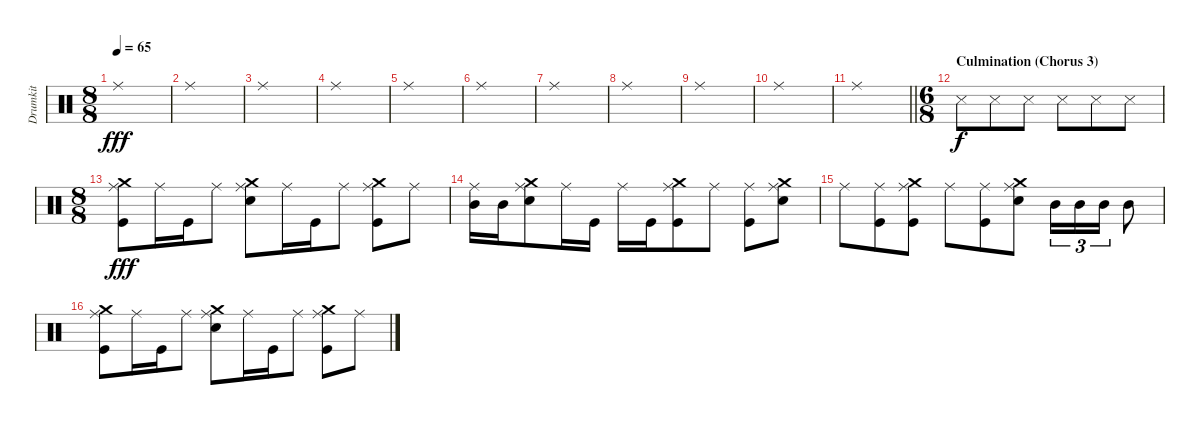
\track ("Drumkit" "Drumkit") {instrument percussion}
\staff {score}
\articulation defaults
\ts (8 8)
\tempo 65
\clef neutral
\ks c "Ride (middle)".1{dy fff}
|
"Ride (middle)".1 |
"Ride (middle)".1 |
"Ride (middle)".1 |
"Ride (middle)".1 |
"Ride (middle)".1 |
"Ride (middle)".1 |
"Ride (middle)".1 |
"Ride (middle)".1 |
"Ride (middle)".1 |
\barLineRight lightlight "Ride (middle)".1
|
\ts (6 8)
\section ("" "Culmination (Chorus 3)")
"Snare (side stick) 3".8{dy f} "Snare (side stick) 3".8 "Snare (side stick) 3".8 "Snare (side stick) 3".8 "Snare (side stick) 3".8 "Snare (side stick) 3".8 |
\ts (8 8)
("Ride (middle)" "Crash medium (hit)" "Kick (hit)").8{dy fff} "Ride (middle)".16 "Kick (hit)".16 "Ride (middle)".8 ("Ride (middle)" "Crash medium (hit)" "Snare (hit) 2").8 "Ride (middle)".16 "Kick (hit)".16 "Ride (middle)".8 ("Ride (middle)" "Crash medium (hit)" "Kick (hit)").8 "Ride (middle)".8 |
("Ride (middle)" "Mid Tom (hit)").16 "Mid Tom (hit)".16 ("Ride (middle)" "Crash medium (hit)" "Snare (hit) 2").8 "Ride (middle)".16 "Kick (hit)".16 "Ride (middle)".16 "Kick (hit)".16 ("Ride (middle)" "Crash medium (hit)" "Kick (hit)").8 "Ride (middle)".8 ("Ride (middle)" "Kick (hit)").8 ("Ride (middle)" "Crash medium (hit)" "Snare (hit) 2").8 |
"Ride (middle)".8 ("Ride (middle)" "Kick (hit)").8 ("Ride (middle)" "Crash medium (hit)" "Kick (hit)").8 "Ride (middle)".8 ("Ride (middle)" "Kick (hit)").8 ("Ride (middle)" "Crash medium (hit)" "Snare (hit) 2").8 "Mid Tom (hit)".16{tu (3 2)} "Mid Tom (hit)".16{tu (3 2)} "Mid Tom (hit)".16{tu (3 2)} "Mid Tom (hit)".8 |
("Ride (middle)" "Crash medium (hit)" "Kick (hit)").8 "Ride (middle)".16 "Kick (hit)".16 "Ride (middle)".8 ("Ride (middle)" "Crash medium (hit)" "Snare (hit) 2").8 "Ride (middle)".16 "Kick (hit)".16 "Ride (middle)".8 ("Ride (middle)" "Crash medium (hit)" "Kick (hit)").8 "Ride (middle)".8
